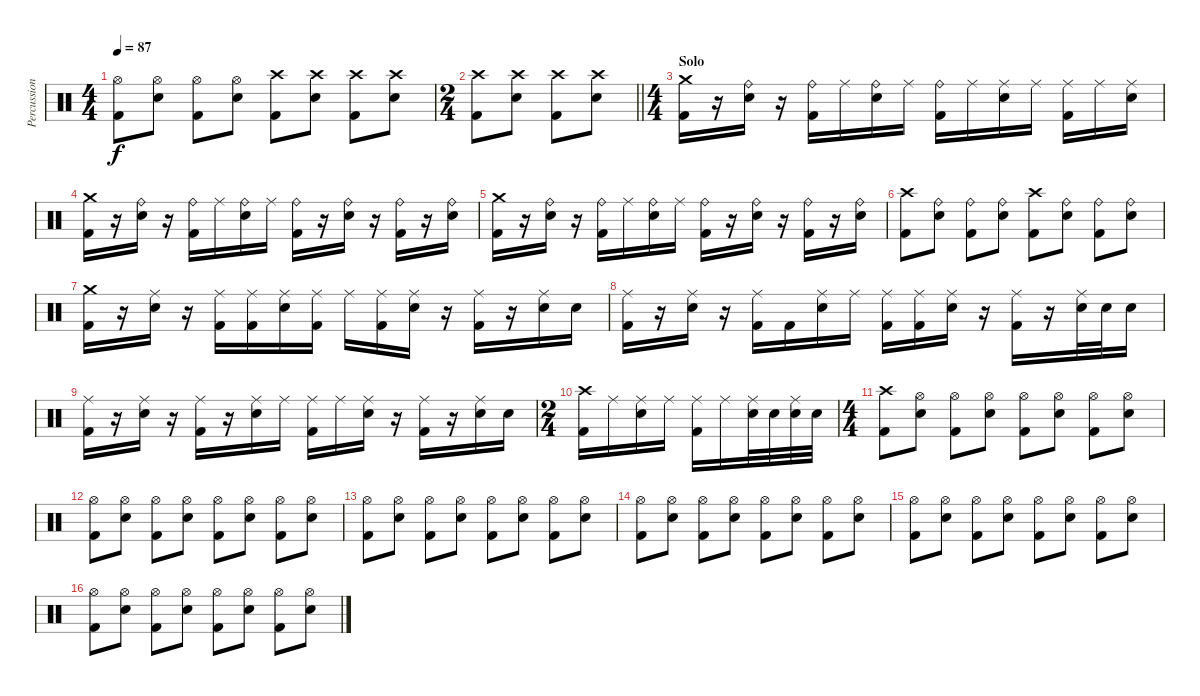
\track ("Percussion" "Percussion") {instrument percussion}
\staff {score}
\articulation defaults
\ts (4 4)
\tempo 87
\clef neutral
\ks c
("Kick (hit) 2" "Hi-Hat (open)").8{dy f} ("Electric Snare (hit)" "Hi-Hat (open)").8 ("Kick (hit) 2" "Hi-Hat (open)").8 ("Electric Snare (hit)" "Hi-Hat (open)").8 ("Kick (hit) 2" "Crash high (hit)").8 ("Electric Snare (hit)" "Crash high (hit)").8 ("Kick (hit) 2" "Crash high (hit)").8 ("Electric Snare (hit)" "Crash high (hit)").8 |
\ts (2 4)
\barLineRight lightlight
("Kick (hit) 2" "Crash high (hit)").8 ("Electric Snare (hit)" "Crash high (hit)").8 ("Kick (hit) 2" "Crash high (hit)").8 ("Electric Snare (hit)" "Crash high (hit)").8 |
\ts (4 4)
\section ("" "Solo")
("Kick (hit) 2" "Crash medium (hit)").16 r.16 ("Electric Snare (hit)" "Ride (bell)").16 r.16 ("Kick (hit) 2" "Ride (bell)").16 "Ride (middle)".16 ("Electric Snare (hit)" "Ride (bell)").16 "Ride (middle)".16 ("Kick (hit) 2" "Ride (bell)").16 "Ride (middle)".16 ("Electric Snare (hit)" "Ride (middle)").16 "Ride (middle)".16 ("Kick (hit) 2" "Ride (middle)").16 "Ride (middle)".16 ("Electric Snare (hit)" "Ride (middle)").16 |
("Kick (hit) 2" "Crash medium (hit)").16 r.16 ("Electric Snare (hit)" "Ride (bell)").16 r.16 ("Kick (hit) 2" "Ride (bell)").16 "Ride (middle)".16 ("Electric Snare (hit)" "Ride (bell)").16 "Ride (middle)".16 ("Kick (hit) 2" "Ride (bell)").16 r.16 ("Electric Snare (hit)" "Ride (bell)").16 r.16 ("Kick (hit) 2" "Ride (bell)").16 r.16 ("Electric Snare (hit)" "Ride (bell)").16 |
("Kick (hit) 2" "Crash medium (hit)").16 r.16 ("Electric Snare (hit)" "Ride (bell)").16 r.16 ("Kick (hit) 2" "Ride (bell)").16 "Ride (middle)".16 ("Electric Snare (hit)" "Ride (bell)").16 "Ride (middle)".16 ("Kick (hit) 2" "Ride (bell)").16 r.16 ("Electric Snare (hit)" "Ride (bell)").16 r.16 ("Kick (hit) 2" "Ride (bell)").16 r.16 ("Electric Snare (hit)" "Ride (bell)").16 |
("Kick (hit) 2" "Crash high (hit)").8 ("Electric Snare (hit)" "Ride (bell)").8 ("Kick (hit) 2" "Ride (bell)").8 ("Electric Snare (hit)" "Ride (bell)").8 ("Kick (hit) 2" "Crash high (hit)").8 ("Electric Snare (hit)" "Ride (bell)").8 ("Kick (hit) 2" "Ride (bell)").8 ("Electric Snare (hit)" "Ride (bell)").8 |
("Kick (hit) 2" "Crash medium (hit)").16 r.16 ("Electric Snare (hit)" "Ride (middle)").16 r.16 ("Kick (hit) 2" "Ride (middle)").16 ("Kick (hit) 2" "Ride (middle)").16 ("Electric Snare (hit)" "Ride (middle)").16 ("Kick (hit) 2" "Ride (middle)").16 "Ride (middle)".16 ("Kick (hit) 2" "Ride (middle)").16 ("Electric Snare (hit)" "Ride (middle)").16 r.16 ("Kick (hit) 2" "Ride (middle)").16 r.16 ("Electric Snare (hit)" "Ride (middle)").16 "Electric Snare (hit)".16 |
("Kick (hit) 2" "Ride (middle)").16 r.16 ("Electric Snare (hit)" "Ride (middle)").16 r.16 ("Kick (hit) 2" "Ride (middle)").16 "Kick (hit) 2".16 ("Electric Snare (hit)" "Ride (middle)").16 "Ride (middle)".16 ("Kick (hit) 2" "Ride (middle)").16 ("Kick (hit) 2" "Ride (middle)").16 ("Electric Snare (hit)" "Ride (middle)").16 r.16 ("Kick (hit) 2" "Ride (middle)").16 r.16 ("Electric Snare (hit)" "Ride (middle)").32 "Electric Snare (hit)".32 "Electric Snare (hit)".16 |
("Kick (hit) 2" "Ride (middle)").16 r.16 ("Electric Snare (hit)" "Ride (middle)").16 r.16 ("Kick (hit) 2" "Ride (middle)").16 r.16 ("Electric Snare (hit)" "Ride (middle)").16 "Ride (middle)".16 ("Kick (hit) 2" "Ride (middle)").16 "Ride (middle)".16 ("Electric Snare (hit)" "Ride (middle)").16 r.16 ("Kick (hit) 2" "Ride (middle)").16 r.16 ("Electric Snare (hit)" "Ride (middle)").16 "Electric Snare (hit)".16 |
\ts (2 4)
("Kick (hit) 2" "Crash high (hit)").16 "Ride (middle)".16 ("Electric Snare (hit)" "Ride (middle)").16 "Ride (middle)".16 ("Kick (hit) 2" "Ride (middle)").16 "Ride (middle)".16 ("Electric Snare (hit)" "Ride (middle)").32 "Electric Snare (hit)".32 ("Electric Snare (hit)" "Ride (middle)").32 "Electric Snare (hit)".32 |
\ts (4 4)
("Kick (hit) 2" "Crash high (hit)").8 ("Electric Snare (hit)" "Hi-Hat (open)").8 ("Kick (hit) 2" "Hi-Hat (open)").8 ("Electric Snare (hit)" "Hi-Hat (open)").8 ("Kick (hit) 2" "Hi-Hat (open)").8 ("Electric Snare (hit)" "Hi-Hat (open)").8 ("Kick (hit) 2" "Hi-Hat (open)").8 ("Electric Snare (hit)" "Hi-Hat (open)").8 |
("Kick (hit) 2" "Hi-Hat (open)").8 ("Electric Snare (hit)" "Hi-Hat (open)").8 ("Kick (hit) 2" "Hi-Hat (open)").8 ("Electric Snare (hit)" "Hi-Hat (open)").8 ("Kick (hit) 2" "Hi-Hat (open)").8 ("Electric Snare (hit)" "Hi-Hat (open)").8 ("Kick (hit) 2" "Hi-Hat (open)").8 ("Electric Snare (hit)" "Hi-Hat (open)").8 |
("Kick (hit) 2" "Hi-Hat (open)").8 ("Electric Snare (hit)" "Hi-Hat (open)").8 ("Kick (hit) 2" "Hi-Hat (open)").8 ("Electric Snare (hit)" "Hi-Hat (open)").8 ("Kick (hit) 2" "Hi-Hat (open)").8 ("Electric Snare (hit)" "Hi-Hat (open)").8 ("Kick (hit) 2" "Hi-Hat (open)").8 ("Electric Snare (hit)" "Hi-Hat (open)").8 |
("Kick (hit) 2" "Hi-Hat (open)").8 ("Electric Snare (hit)" "Hi-Hat (open)").8 ("Kick (hit) 2" "Hi-Hat (open)").8 ("Electric Snare (hit)" "Hi-Hat (open)").8 ("Kick (hit) 2" "Hi-Hat (open)").8 ("Electric Snare (hit)" "Hi-Hat (open)").8 ("Kick (hit) 2" "Hi-Hat (open)").8 ("Electric Snare (hit)" "Hi-Hat (open)").8 |
("Kick (hit) 2" "Hi-Hat (open)").8 ("Electric Snare (hit)" "Hi-Hat (open)").8 ("Kick (hit) 2" "Hi-Hat (open)").8 ("Electric Snare (hit)" "Hi-Hat (open)").8 ("Kick (hit) 2" "Hi-Hat (open)").8 ("Electric Snare (hit)" "Hi-Hat (open)").8 ("Kick (hit) 2" "Hi-Hat (open)").8 ("Electric Snare (hit)" "Hi-Hat (open)").8 |
("Kick (hit) 2" "Hi-Hat (open)").8 ("Electric Snare (hit)" "Hi-Hat (open)").8 ("Kick (hit) 2" "Hi-Hat (open)").8 ("Electric Snare (hit)" "Hi-Hat (open)").8 ("Kick (hit) 2" "Hi-Hat (open)").8 ("Electric Snare (hit)" "Hi-Hat (open)").8 ("Kick (hit) 2" "Hi-Hat (open)").8 ("Electric Snare (hit)" "Hi-Hat (open)").8
